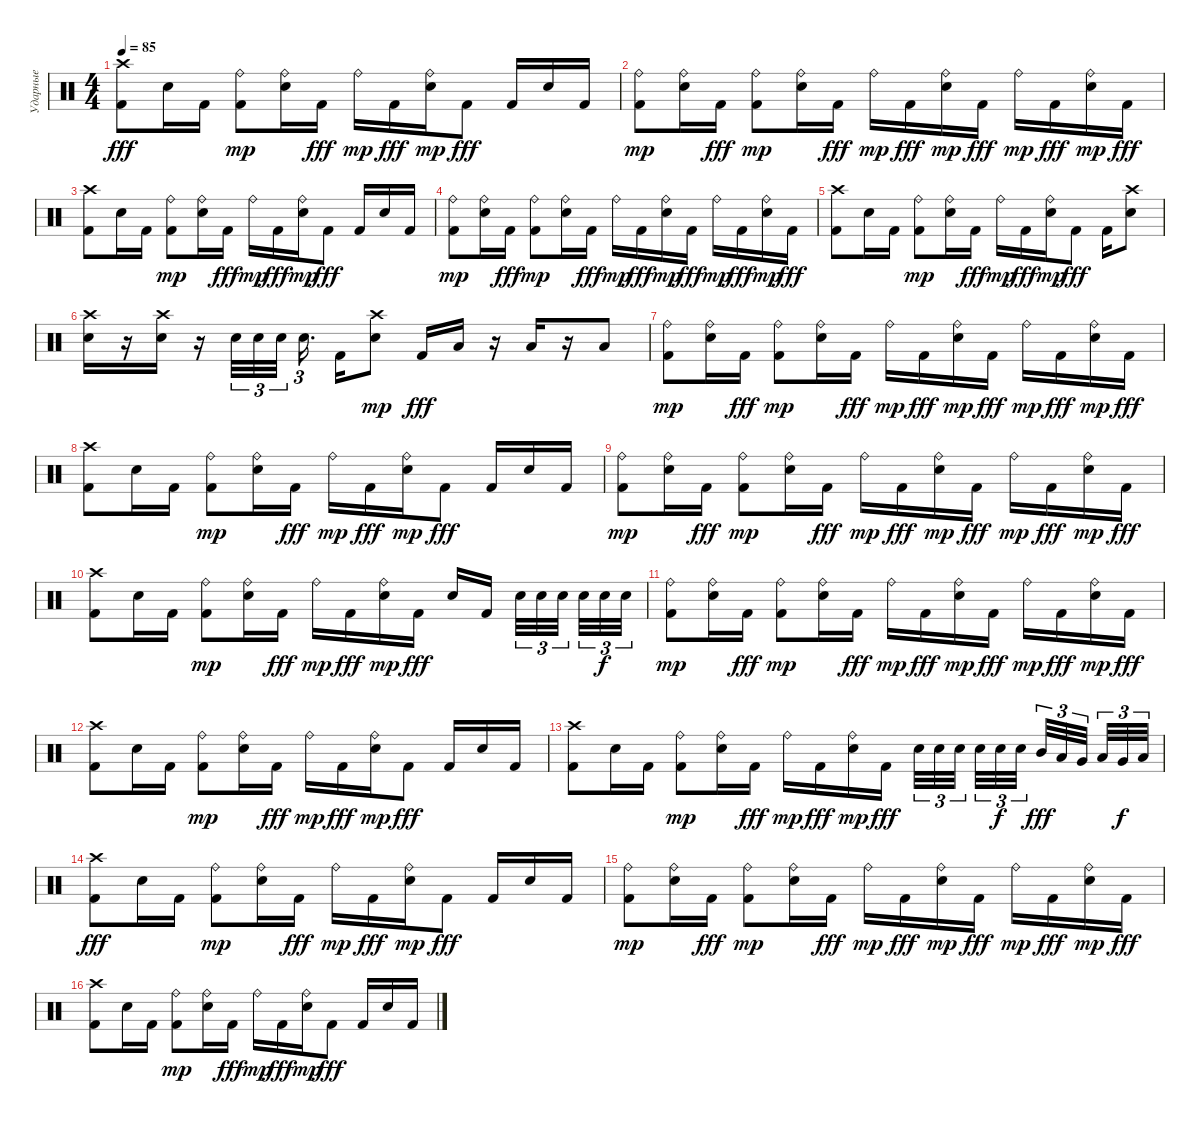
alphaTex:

\track ("Ударные" "Ударные") {instrument percussion}
\staff {score}
\articulation defaults
\ts (4 4)
\tempo 85
\clef neutral
\ks c
("Kick (hit) 2" "Crash high (hit)").8{dy fff} "Electric Snare (hit)".16 "Kick (hit) 2".16 ("Kick (hit) 2" "Ride (bell)").8{dy mp} ("Electric Snare (hit)" "Ride (bell)").16 "Kick (hit) 2".16{dy fff} "Ride (bell)".16{dy mp} "Kick (hit) 2".16{dy fff} ("Electric Snare (hit)" "Ride (bell)").16{dy mp} "Kick (hit) 2".8{dy fff} "Kick (hit) 2".16 "Electric Snare (hit)".16 "Kick (hit) 2".16 |
("Kick (hit) 2" "Ride (bell)").8{dy mp} ("Electric Snare (hit)" "Ride (bell)").16 "Kick (hit) 2".16{dy fff} ("Kick (hit) 2" "Ride (bell)").8{dy mp} ("Electric Snare (hit)" "Ride (bell)").16 "Kick (hit) 2".16{dy fff} "Ride (bell)".16{dy mp} "Kick (hit) 2".16{dy fff} ("Electric Snare (hit)" "Ride (bell)").16{dy mp} "Kick (hit) 2".16{dy fff} "Ride (bell)".16{dy mp} "Kick (hit) 2".16{dy fff} ("Electric Snare (hit)" "Ride (bell)").16{dy mp} "Kick (hit) 2".16{dy fff} |
("Kick (hit) 2" "Crash high (hit)").8 "Electric Snare (hit)".16 "Kick (hit) 2".16 ("Kick (hit) 2" "Ride (bell)").8{dy mp} ("Electric Snare (hit)" "Ride (bell)").16 "Kick (hit) 2".16{dy fff} "Ride (bell)".16{dy mp} "Kick (hit) 2".16{dy fff} ("Electric Snare (hit)" "Ride (bell)").16{dy mp} "Kick (hit) 2".8{dy fff} "Kick (hit) 2".16 "Electric Snare (hit)".16 "Kick (hit) 2".16 |
("Kick (hit) 2" "Ride (bell)").8{dy mp} ("Electric Snare (hit)" "Ride (bell)").16 "Kick (hit) 2".16{dy fff} ("Kick (hit) 2" "Ride (bell)").8{dy mp} ("Electric Snare (hit)" "Ride (bell)").16 "Kick (hit) 2".16{dy fff} "Ride (bell)".16{dy mp} "Kick (hit) 2".16{dy fff} ("Electric Snare (hit)" "Ride (bell)").16{dy mp} "Kick (hit) 2".16{dy fff} "Ride (bell)".16{dy mp} "Kick (hit) 2".16{dy fff} ("Electric Snare (hit)" "Ride (bell)").16{dy mp} "Kick (hit) 2".16{dy fff} |
("Kick (hit) 2" "Crash high (hit)").8 "Electric Snare (hit)".16 "Kick (hit) 2".16 ("Kick (hit) 2" "Ride (bell)").8{dy mp} ("Electric Snare (hit)" "Ride (bell)").16 "Kick (hit) 2".16{dy fff} "Ride (bell)".16{dy mp} "Kick (hit) 2".16{dy fff} ("Electric Snare (hit)" "Ride (bell)").16{dy mp} "Kick (hit) 2".8{dy fff} "Kick (hit) 2".16 ("Electric Snare (hit)" "Crash high (hit)").8 |
("Electric Snare (hit)" "Crash high (hit)").16 r.16 ("Electric Snare (hit)" "Crash high (hit)").16 r.16 "Electric Snare (hit)".32{tu (3 2)} "Electric Snare (hit)".32{tu (3 2)} "Electric Snare (hit)".32{tu (3 2) beam splitsecondary} "Electric Snare (hit)".16{d tu (3 2) beam splitsecondary} "Kick (hit) 2".16 ("Electric Snare (hit)" "Crash high (hit)").8{dy mp} "Kick (hit) 2".16{dy fff} "Low Floor Tom (hit)".16 r.16 "Low Floor Tom (hit)".16 r.16 "Low Floor Tom (hit)".8 |
("Kick (hit) 2" "Ride (bell)").8{dy mp} ("Electric Snare (hit)" "Ride (bell)").16 "Kick (hit) 2".16{dy fff} ("Kick (hit) 2" "Ride (bell)").8{dy mp} ("Electric Snare (hit)" "Ride (bell)").16 "Kick (hit) 2".16{dy fff} "Ride (bell)".16{dy mp} "Kick (hit) 2".16{dy fff} ("Electric Snare (hit)" "Ride (bell)").16{dy mp} "Kick (hit) 2".16{dy fff} "Ride (bell)".16{dy mp} "Kick (hit) 2".16{dy fff} ("Electric Snare (hit)" "Ride (bell)").16{dy mp} "Kick (hit) 2".16{dy fff} |
("Kick (hit) 2" "Crash high (hit)").8 "Electric Snare (hit)".16 "Kick (hit) 2".16 ("Kick (hit) 2" "Ride (bell)").8{dy mp} ("Electric Snare (hit)" "Ride (bell)").16 "Kick (hit) 2".16{dy fff} "Ride (bell)".16{dy mp} "Kick (hit) 2".16{dy fff} ("Electric Snare (hit)" "Ride (bell)").16{dy mp} "Kick (hit) 2".8{dy fff} "Kick (hit) 2".16 "Electric Snare (hit)".16 "Kick (hit) 2".16 |
("Kick (hit) 2" "Ride (bell)").8{dy mp} ("Electric Snare (hit)" "Ride (bell)").16 "Kick (hit) 2".16{dy fff} ("Kick (hit) 2" "Ride (bell)").8{dy mp} ("Electric Snare (hit)" "Ride (bell)").16 "Kick (hit) 2".16{dy fff} "Ride (bell)".16{dy mp} "Kick (hit) 2".16{dy fff} ("Electric Snare (hit)" "Ride (bell)").16{dy mp} "Kick (hit) 2".16{dy fff} "Ride (bell)".16{dy mp} "Kick (hit) 2".16{dy fff} ("Electric Snare (hit)" "Ride (bell)").16{dy mp} "Kick (hit) 2".16{dy fff} |
("Kick (hit) 2" "Crash high (hit)").8 "Electric Snare (hit)".16 "Kick (hit) 2".16 ("Kick (hit) 2" "Ride (bell)").8{dy mp} ("Electric Snare (hit)" "Ride (bell)").16 "Kick (hit) 2".16{dy fff} "Ride (bell)".16{dy mp} "Kick (hit) 2".16{dy fff} ("Electric Snare (hit)" "Ride (bell)").16{dy mp} "Kick (hit) 2".16{dy fff} "Electric Snare (hit)".16 "Kick (hit) 2".16{beam splitsecondary} "Electric Snare (hit)".32{tu (3 2)} "Electric Snare (hit)".32{tu (3 2)} "Electric Snare (hit)".32{tu (3 2) beam splitsecondary} "Electric Snare (hit)".32{tu (3 2)} "Electric Snare (hit)".32{tu (3 2) dy f} "Electric Snare (hit)".32{tu (3 2)} |
("Kick (hit) 2" "Ride (bell)").8{dy mp} ("Electric Snare (hit)" "Ride (bell)").16 "Kick (hit) 2".16{dy fff} ("Kick (hit) 2" "Ride (bell)").8{dy mp} ("Electric Snare (hit)" "Ride (bell)").16 "Kick (hit) 2".16{dy fff} "Ride (bell)".16{dy mp} "Kick (hit) 2".16{dy fff} ("Electric Snare (hit)" "Ride (bell)").16{dy mp} "Kick (hit) 2".16{dy fff} "Ride (bell)".16{dy mp} "Kick (hit) 2".16{dy fff} ("Electric Snare (hit)" "Ride (bell)").16{dy mp} "Kick (hit) 2".16{dy fff} |
("Kick (hit) 2" "Crash high (hit)").8 "Electric Snare (hit)".16 "Kick (hit) 2".16 ("Kick (hit) 2" "Ride (bell)").8{dy mp} ("Electric Snare (hit)" "Ride (bell)").16 "Kick (hit) 2".16{dy fff} "Ride (bell)".16{dy mp} "Kick (hit) 2".16{dy fff} ("Electric Snare (hit)" "Ride (bell)").16{dy mp} "Kick (hit) 2".8{dy fff} "Kick (hit) 2".16 "Electric Snare (hit)".16 "Kick (hit) 2".16 |
("Kick (hit) 2" "Crash high (hit)").8 "Electric Snare (hit)".16 "Kick (hit) 2".16 ("Kick (hit) 2" "Ride (bell)").8{dy mp} ("Electric Snare (hit)" "Ride (bell)").16 "Kick (hit) 2".16{dy fff} "Ride (bell)".16{dy mp} "Kick (hit) 2".16{dy fff} ("Electric Snare (hit)" "Ride (bell)").16{dy mp} "Kick (hit) 2".16{dy fff} "Electric Snare (hit)".32{tu (3 2)} "Electric Snare (hit)".32{tu (3 2)} "Electric Snare (hit)".32{tu (3 2) beam splitsecondary} "Electric Snare (hit)".32{tu (3 2)} "Electric Snare (hit)".32{tu (3 2) dy f} "Electric Snare (hit)".32{tu (3 2) beam splitsecondary} "Mid Tom (hit)".32{tu (3 2) dy fff} "Low Tom (hit)".32{tu (3 2)} "Very Low Tom (hit)".32{tu (3 2) beam splitsecondary} "Low Tom (hit)".32{tu (3 2)} "Very Low Tom (hit)".32{tu (3 2) dy f} "Low Floor Tom (hit)".32{tu (3 2)} |
("Kick (hit) 2" "Crash high (hit)").8{dy fff} "Electric Snare (hit)".16 "Kick (hit) 2".16 ("Kick (hit) 2" "Ride (bell)").8{dy mp} ("Electric Snare (hit)" "Ride (bell)").16 "Kick (hit) 2".16{dy fff} "Ride (bell)".16{dy mp} "Kick (hit) 2".16{dy fff} ("Electric Snare (hit)" "Ride (bell)").16{dy mp} "Kick (hit) 2".8{dy fff} "Kick (hit) 2".16 "Electric Snare (hit)".16 "Kick (hit) 2".16 |
("Kick (hit) 2" "Ride (bell)").8{dy mp} ("Electric Snare (hit)" "Ride (bell)").16 "Kick (hit) 2".16{dy fff} ("Kick (hit) 2" "Ride (bell)").8{dy mp} ("Electric Snare (hit)" "Ride (bell)").16 "Kick (hit) 2".16{dy fff} "Ride (bell)".16{dy mp} "Kick (hit) 2".16{dy fff} ("Electric Snare (hit)" "Ride (bell)").16{dy mp} "Kick (hit) 2".16{dy fff} "Ride (bell)".16{dy mp} "Kick (hit) 2".16{dy fff} ("Electric Snare (hit)" "Ride (bell)").16{dy mp} "Kick (hit) 2".16{dy fff} |
("Kick (hit) 2" "Crash high (hit)").8 "Electric Snare (hit)".16 "Kick (hit) 2".16 ("Kick (hit) 2" "Ride (bell)").8{dy mp} ("Electric Snare (hit)" "Ride (bell)").16 "Kick (hit) 2".16{dy fff} "Ride (bell)".16{dy mp} "Kick (hit) 2".16{dy fff} ("Electric Snare (hit)" "Ride (bell)").16{dy mp} "Kick (hit) 2".8{dy fff} "Kick (hit) 2".16 "Electric Snare (hit)".16 "Kick (hit) 2".16
